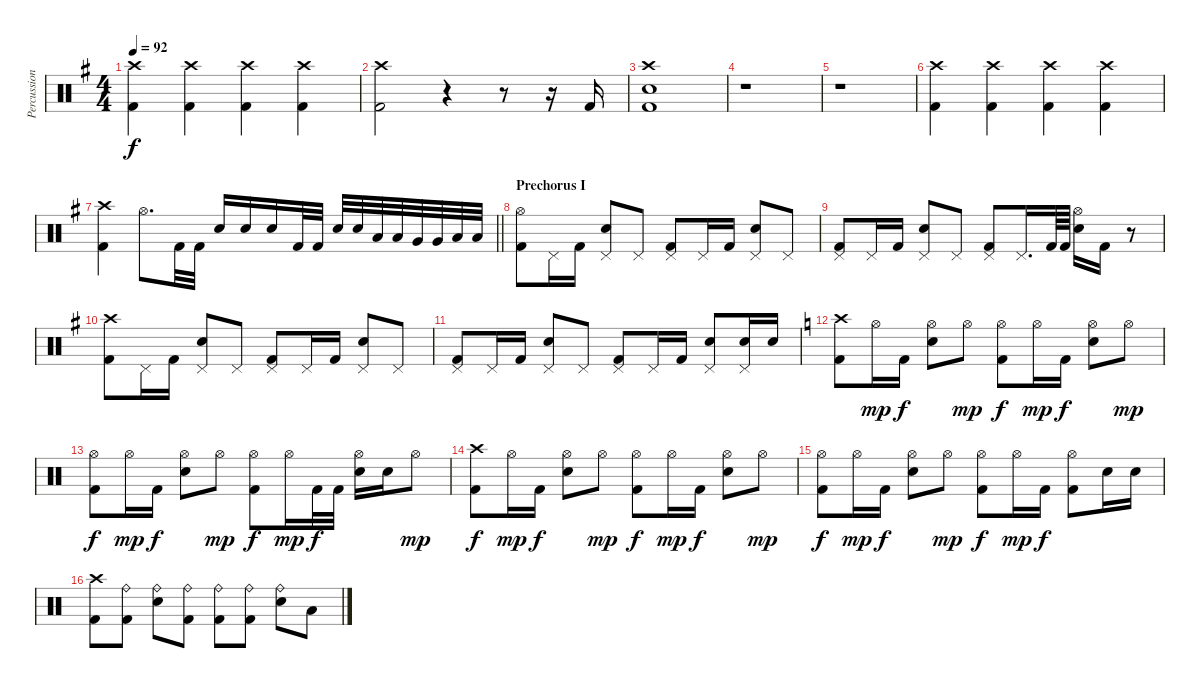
\track ("Percussion" "Percussion") {instrument percussion}
\staff {score}
\articulation defaults
\ts (4 4)
\tempo 92
\clef neutral
\ks eminor
("Crash high (hit)" "Kick (hit) 2").4{dy f} ("Crash high (hit)" "Kick (hit) 2").4 ("Crash high (hit)" "Kick (hit) 2").4 ("Crash high (hit)" "Kick (hit) 2").4 |
("Crash high (hit)" "Kick (hit) 2").2 r.4 r.8 r.16 "Kick (hit) 2".16 |
("Crash high (hit)" "Electric Snare (hit)" "Kick (hit) 2").1 |
r.1 |
r.1 |
("Crash high (hit)" "Kick (hit) 2").4 ("Crash high (hit)" "Kick (hit) 2").4 ("Crash high (hit)" "Kick (hit) 2").4 ("Crash high (hit)" "Kick (hit) 2").4 |
\barLineRight lightlight
("Crash high (hit)" "Kick (hit) 2").4 "Hi-Hat (open)".8{d} "Kick (hit) 2".32 "Kick (hit) 2".32 "Electric Snare (hit)".16 "Electric Snare (hit)".16 "Electric Snare (hit)".16 "Kick (hit) 2".32 "Kick (hit) 2".32 "Electric Snare (hit)".32 "Electric Snare (hit)".32 "Low Tom (hit)".32 "Low Tom (hit)".32 "Very Low Tom (hit)".32 "Very Low Tom (hit)".32 "Low Floor Tom (hit)".32 "Low Floor Tom (hit)".32 |
\section ("" "Prechorus I")
("Hi-Hat (open)" "Kick (hit) 2").8 "Pedal Hi-Hat (hit)".16 "Kick (hit) 2".16 ("Pedal Hi-Hat (hit)" "Electric Snare (hit)").8 "Pedal Hi-Hat (hit)".8 ("Pedal Hi-Hat (hit)" "Kick (hit) 2").8 "Pedal Hi-Hat (hit)".16 "Kick (hit) 2".16 ("Pedal Hi-Hat (hit)" "Electric Snare (hit)").8 "Pedal Hi-Hat (hit)".8 |
("Pedal Hi-Hat (hit)" "Kick (hit) 2").8 "Pedal Hi-Hat (hit)".16 "Kick (hit) 2".16 ("Pedal Hi-Hat (hit)" "Electric Snare (hit)").8 "Pedal Hi-Hat (hit)".8 ("Pedal Hi-Hat (hit)" "Kick (hit) 2").8 "Pedal Hi-Hat (hit)".16{d} "Kick (hit) 2".64 "Kick (hit) 2".64 ("Hi-Hat (open)" "Electric Snare (hit)").16 "Kick (hit) 2".16 r.8 |
("Crash high (hit)" "Kick (hit) 2").8 "Pedal Hi-Hat (hit)".16 "Kick (hit) 2".16 ("Pedal Hi-Hat (hit)" "Electric Snare (hit)").8 "Pedal Hi-Hat (hit)".8 ("Pedal Hi-Hat (hit)" "Kick (hit) 2").8 "Pedal Hi-Hat (hit)".16 "Kick (hit) 2".16 ("Pedal Hi-Hat (hit)" "Electric Snare (hit)").8 "Pedal Hi-Hat (hit)".8 |
("Pedal Hi-Hat (hit)" "Kick (hit) 2").8 "Pedal Hi-Hat (hit)".16 "Kick (hit) 2".16 ("Pedal Hi-Hat (hit)" "Electric Snare (hit)").8 "Pedal Hi-Hat (hit)".8 ("Pedal Hi-Hat (hit)" "Kick (hit) 2").8 "Pedal Hi-Hat (hit)".16 "Kick (hit) 2".16 ("Pedal Hi-Hat (hit)" "Electric Snare (hit)").8 ("Pedal Hi-Hat (hit)" "Electric Snare (hit)").16 "Electric Snare (hit)".16 |
\ks aminor
("Crash high (hit)" "Kick (hit) 2").8 "Hi-Hat (open)".16{dy mp} "Kick (hit) 2".16{dy f} ("Hi-Hat (open)" "Electric Snare (hit)").8 "Hi-Hat (open)".8{dy mp} ("Hi-Hat (open)" "Kick (hit) 2").8{dy f} "Hi-Hat (open)".16{dy mp} "Kick (hit) 2".16{dy f} ("Hi-Hat (open)" "Electric Snare (hit)").8 "Hi-Hat (open)".8{dy mp} |
("Hi-Hat (open)" "Kick (hit) 2").8{dy f} "Hi-Hat (open)".16{dy mp} "Kick (hit) 2".16{dy f} ("Hi-Hat (open)" "Electric Snare (hit)").8 "Hi-Hat (open)".8{dy mp} ("Hi-Hat (open)" "Kick (hit) 2").8{dy f} "Hi-Hat (open)".16{dy mp} "Kick (hit) 2".32{dy f} "Kick (hit) 2".32 ("Hi-Hat (open)" "Electric Snare (hit)").16 "Electric Snare (hit)".16 "Hi-Hat (open)".8{dy mp} |
("Crash high (hit)" "Kick (hit) 2").8{dy f} "Hi-Hat (open)".16{dy mp} "Kick (hit) 2".16{dy f} ("Hi-Hat (open)" "Electric Snare (hit)").8 "Hi-Hat (open)".8{dy mp} ("Hi-Hat (open)" "Kick (hit) 2").8{dy f} "Hi-Hat (open)".16{dy mp} "Kick (hit) 2".16{dy f} ("Hi-Hat (open)" "Electric Snare (hit)").8 "Hi-Hat (open)".8{dy mp} |
("Hi-Hat (open)" "Kick (hit) 2").8{dy f} "Hi-Hat (open)".16{dy mp} "Kick (hit) 2".16{dy f} ("Hi-Hat (open)" "Electric Snare (hit)").8 "Hi-Hat (open)".8{dy mp} ("Hi-Hat (open)" "Kick (hit) 2").8{dy f} "Hi-Hat (open)".16{dy mp} "Kick (hit) 2".16{dy f} ("Hi-Hat (open)" "Kick (hit) 2").8 "Electric Snare (hit)".16 "Electric Snare (hit)".16 |
("Crash high (hit)" "Kick (hit) 2").8 ("Ride (bell)" "Kick (hit) 2").8 ("Ride (bell)" "Electric Snare (hit)").8 ("Ride (bell)" "Kick (hit) 2").8 ("Ride (bell)" "Kick (hit) 2").8 ("Ride (bell)" "Kick (hit) 2").8 ("Ride (bell)" "Electric Snare (hit)").8 "Low Floor Tom (hit)".8
